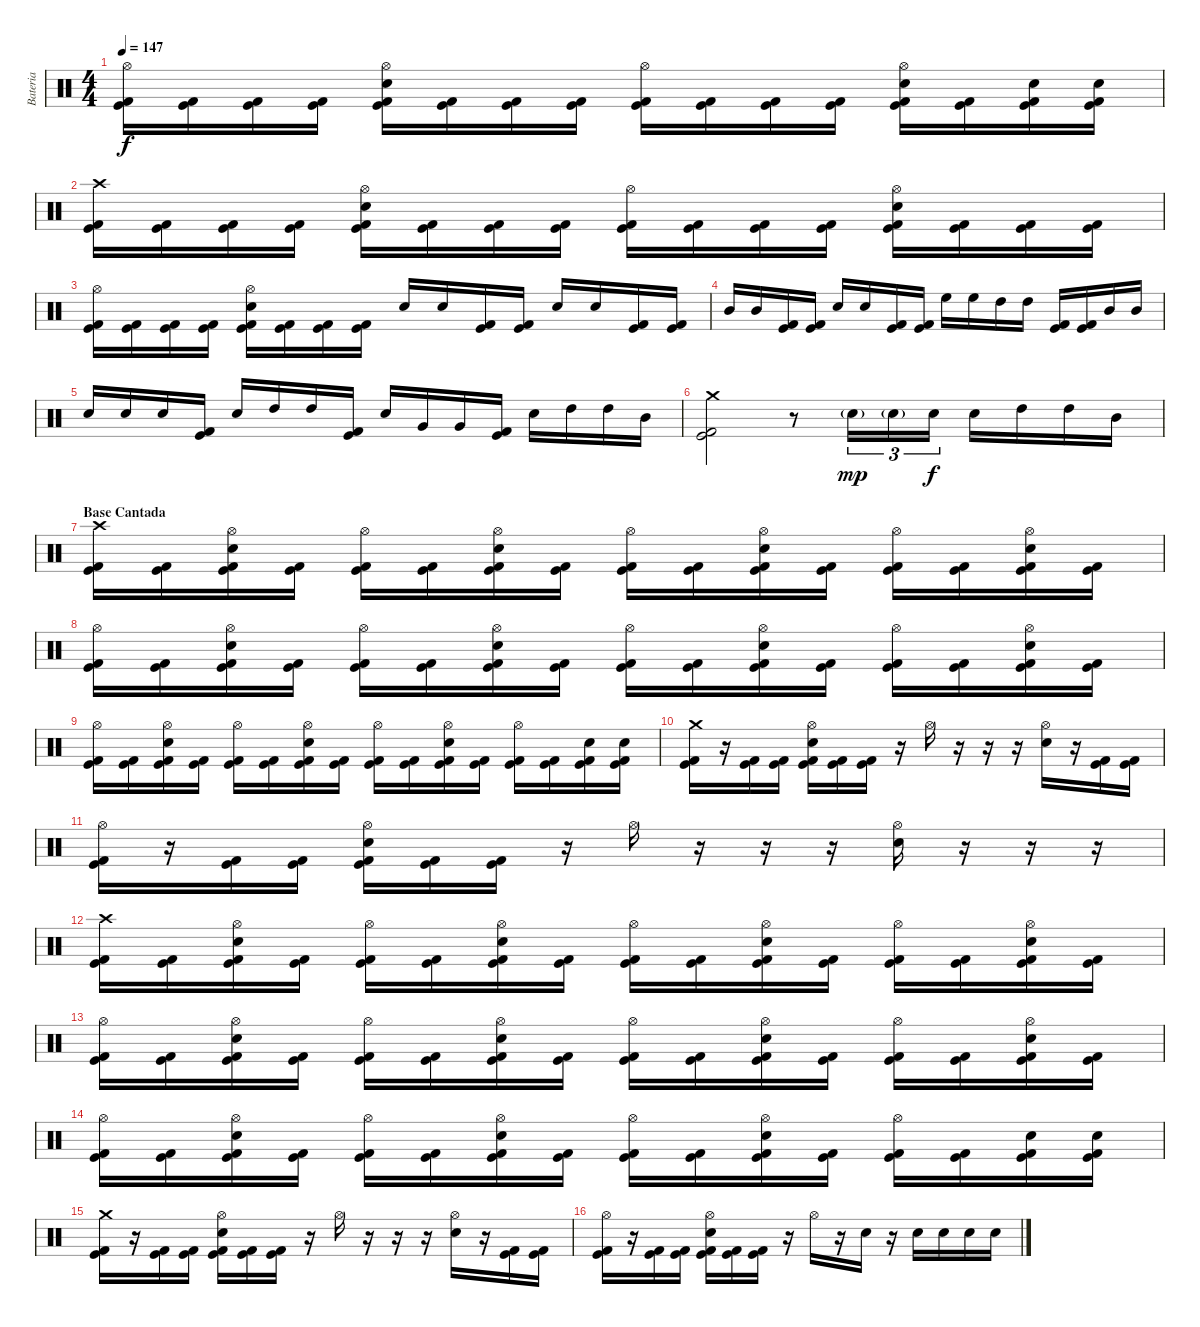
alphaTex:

\track ("Bateria" "Bateria") {instrument percussion}
\staff {score}
\articulation defaults
\ts (4 4)
\tempo 147
\clef neutral
\ks c
("Hi-Hat (open)" "Kick (hit)" "Kick (hit) 2").16{dy f} ("Kick (hit)" "Kick (hit) 2").16 ("Kick (hit)" "Kick (hit) 2").16 ("Kick (hit)" "Kick (hit) 2").16 ("Hi-Hat (open)" "Electric Snare (hit)" "Kick (hit)" "Kick (hit) 2").16 ("Kick (hit)" "Kick (hit) 2").16 ("Kick (hit)" "Kick (hit) 2").16 ("Kick (hit)" "Kick (hit) 2").16 ("Hi-Hat (open)" "Kick (hit)" "Kick (hit) 2").16 ("Kick (hit)" "Kick (hit) 2").16 ("Kick (hit)" "Kick (hit) 2").16 ("Kick (hit)" "Kick (hit) 2").16 ("Hi-Hat (open)" "Electric Snare (hit)" "Kick (hit)" "Kick (hit) 2").16 ("Kick (hit)" "Kick (hit) 2").16 ("Electric Snare (hit)" "Kick (hit)" "Kick (hit) 2").16 ("Electric Snare (hit)" "Kick (hit)" "Kick (hit) 2").16 |
("Crash high (hit)" "Kick (hit)" "Kick (hit) 2").16 ("Kick (hit)" "Kick (hit) 2").16 ("Kick (hit)" "Kick (hit) 2").16 ("Kick (hit)" "Kick (hit) 2").16 ("Hi-Hat (open)" "Electric Snare (hit)" "Kick (hit)" "Kick (hit) 2").16 ("Kick (hit)" "Kick (hit) 2").16 ("Kick (hit)" "Kick (hit) 2").16 ("Kick (hit)" "Kick (hit) 2").16 ("Hi-Hat (open)" "Kick (hit)" "Kick (hit) 2").16 ("Kick (hit)" "Kick (hit) 2").16 ("Kick (hit)" "Kick (hit) 2").16 ("Kick (hit)" "Kick (hit) 2").16 ("Hi-Hat (open)" "Electric Snare (hit)" "Kick (hit)" "Kick (hit) 2").16 ("Kick (hit)" "Kick (hit) 2").16 ("Kick (hit)" "Kick (hit) 2").16 ("Kick (hit)" "Kick (hit) 2").16 |
("Hi-Hat (open)" "Kick (hit)" "Kick (hit) 2").16 ("Kick (hit)" "Kick (hit) 2").16 ("Kick (hit)" "Kick (hit) 2").16 ("Kick (hit)" "Kick (hit) 2").16 ("Hi-Hat (open)" "Electric Snare (hit)" "Kick (hit)" "Kick (hit) 2").16 ("Kick (hit)" "Kick (hit) 2").16 ("Kick (hit)" "Kick (hit) 2").16 ("Kick (hit)" "Kick (hit) 2").16 "Electric Snare (hit)".16 "Electric Snare (hit)".16 ("Kick (hit)" "Kick (hit) 2").16 ("Kick (hit)" "Kick (hit) 2").16 "Electric Snare (hit)".16 "Electric Snare (hit)".16 ("Kick (hit)" "Kick (hit) 2").16 ("Kick (hit)" "Kick (hit) 2").16 |
"Mid Tom (hit)".16 "Mid Tom (hit)".16 ("Kick (hit)" "Kick (hit) 2").16 ("Kick (hit)" "Kick (hit) 2").16 "Electric Snare (hit)".16 "Electric Snare (hit)".16 ("Kick (hit)" "Kick (hit) 2").16 ("Kick (hit)" "Kick (hit) 2").16 "High Floor Tom (hit)".16 "High Floor Tom (hit)".16 "High Tom (hit)".16 "High Tom (hit)".16 ("Kick (hit)" "Kick (hit) 2").16 ("Kick (hit)" "Kick (hit) 2").16 "Mid Tom (hit)".16 "Mid Tom (hit)".16 |
"Electric Snare (hit)".16 "Electric Snare (hit)".16 "Electric Snare (hit)".16 ("Kick (hit)" "Kick (hit) 2").16 "Electric Snare (hit)".16 "High Tom (hit)".16 "High Tom (hit)".16 ("Kick (hit)" "Kick (hit) 2").16 "Electric Snare (hit)".16 "Very Low Tom (hit)".16 "Very Low Tom (hit)".16 ("Kick (hit)" "Kick (hit) 2").16 "Electric Snare (hit)".16 "High Tom (hit)".16 "High Tom (hit)".16 "Mid Tom (hit)".16 |
("Crash medium (hit)" "Kick (hit)" "Kick (hit) 2").2 r.8 "Electric Snare (hit)"{g}.16{tu (3 2) dy mp} "Electric Snare (hit)"{g}.16{tu (3 2)} "Electric Snare (hit)".16{tu (3 2) dy f} "Electric Snare (hit)".16 "High Tom (hit)".16 "High Tom (hit)".16 "Mid Tom (hit)".16 |
\section ("" "Base Cantada")
("Crash high (hit)" "Kick (hit)" "Kick (hit) 2").16 ("Kick (hit)" "Kick (hit) 2").16 ("Hi-Hat (open)" "Electric Snare (hit)" "Kick (hit)" "Kick (hit) 2").16 ("Kick (hit)" "Kick (hit) 2").16 ("Hi-Hat (open)" "Kick (hit)" "Kick (hit) 2").16 ("Kick (hit)" "Kick (hit) 2").16 ("Hi-Hat (open)" "Electric Snare (hit)" "Kick (hit)" "Kick (hit) 2").16 ("Kick (hit)" "Kick (hit) 2").16 ("Hi-Hat (open)" "Kick (hit)" "Kick (hit) 2").16 ("Kick (hit)" "Kick (hit) 2").16 ("Hi-Hat (open)" "Electric Snare (hit)" "Kick (hit)" "Kick (hit) 2").16 ("Kick (hit)" "Kick (hit) 2").16 ("Hi-Hat (open)" "Kick (hit)" "Kick (hit) 2").16 ("Kick (hit)" "Kick (hit) 2").16 ("Hi-Hat (open)" "Electric Snare (hit)" "Kick (hit)" "Kick (hit) 2").16 ("Kick (hit)" "Kick (hit) 2").16 |
("Hi-Hat (open)" "Kick (hit)" "Kick (hit) 2").16 ("Kick (hit)" "Kick (hit) 2").16 ("Hi-Hat (open)" "Electric Snare (hit)" "Kick (hit)" "Kick (hit) 2").16 ("Kick (hit)" "Kick (hit) 2").16 ("Hi-Hat (open)" "Kick (hit)" "Kick (hit) 2").16 ("Kick (hit)" "Kick (hit) 2").16 ("Hi-Hat (open)" "Electric Snare (hit)" "Kick (hit)" "Kick (hit) 2").16 ("Kick (hit)" "Kick (hit) 2").16 ("Hi-Hat (open)" "Kick (hit)" "Kick (hit) 2").16 ("Kick (hit)" "Kick (hit) 2").16 ("Hi-Hat (open)" "Electric Snare (hit)" "Kick (hit)" "Kick (hit) 2").16 ("Kick (hit)" "Kick (hit) 2").16 ("Hi-Hat (open)" "Kick (hit)" "Kick (hit) 2").16 ("Kick (hit)" "Kick (hit) 2").16 ("Hi-Hat (open)" "Electric Snare (hit)" "Kick (hit)" "Kick (hit) 2").16 ("Kick (hit)" "Kick (hit) 2").16 |
("Hi-Hat (open)" "Kick (hit)" "Kick (hit) 2").16 ("Kick (hit)" "Kick (hit) 2").16 ("Hi-Hat (open)" "Electric Snare (hit)" "Kick (hit)" "Kick (hit) 2").16 ("Kick (hit)" "Kick (hit) 2").16 ("Hi-Hat (open)" "Kick (hit)" "Kick (hit) 2").16 ("Kick (hit)" "Kick (hit) 2").16 ("Hi-Hat (open)" "Electric Snare (hit)" "Kick (hit)" "Kick (hit) 2").16 ("Kick (hit)" "Kick (hit) 2").16 ("Hi-Hat (open)" "Kick (hit)" "Kick (hit) 2").16 ("Kick (hit)" "Kick (hit) 2").16 ("Hi-Hat (open)" "Electric Snare (hit)" "Kick (hit)" "Kick (hit) 2").16 ("Kick (hit)" "Kick (hit) 2").16 ("Hi-Hat (open)" "Kick (hit)" "Kick (hit) 2").16 ("Kick (hit)" "Kick (hit) 2").16 ("Electric Snare (hit)" "Kick (hit)" "Kick (hit) 2").16 ("Electric Snare (hit)" "Kick (hit)" "Kick (hit) 2").16 |
("Crash medium (hit)" "Kick (hit)" "Kick (hit) 2").16 r.16 ("Kick (hit)" "Kick (hit) 2").16 ("Kick (hit)" "Kick (hit) 2").16 ("Hi-Hat (open)" "Electric Snare (hit)" "Kick (hit)" "Kick (hit) 2").16 ("Kick (hit)" "Kick (hit) 2").16 ("Kick (hit)" "Kick (hit) 2").16 r.16 "Hi-Hat (open)".16 r.16 r.16 r.16 ("Hi-Hat (open)" "Electric Snare (hit)").16 r.16 ("Kick (hit)" "Kick (hit) 2").16 ("Kick (hit)" "Kick (hit) 2").16 |
("Hi-Hat (open)" "Kick (hit)" "Kick (hit) 2").16 r.16 ("Kick (hit)" "Kick (hit) 2").16 ("Kick (hit)" "Kick (hit) 2").16 ("Hi-Hat (open)" "Electric Snare (hit)" "Kick (hit)" "Kick (hit) 2").16 ("Kick (hit)" "Kick (hit) 2").16 ("Kick (hit)" "Kick (hit) 2").16 r.16 "Hi-Hat (open)".16 r.16 r.16 r.16 ("Hi-Hat (open)" "Electric Snare (hit)").16 r.16 r.16 r.16 |
("Crash high (hit)" "Kick (hit)" "Kick (hit) 2").16 ("Kick (hit)" "Kick (hit) 2").16 ("Hi-Hat (open)" "Electric Snare (hit)" "Kick (hit)" "Kick (hit) 2").16 ("Kick (hit)" "Kick (hit) 2").16 ("Hi-Hat (open)" "Kick (hit)" "Kick (hit) 2").16 ("Kick (hit)" "Kick (hit) 2").16 ("Hi-Hat (open)" "Electric Snare (hit)" "Kick (hit)" "Kick (hit) 2").16 ("Kick (hit)" "Kick (hit) 2").16 ("Hi-Hat (open)" "Kick (hit)" "Kick (hit) 2").16 ("Kick (hit)" "Kick (hit) 2").16 ("Hi-Hat (open)" "Electric Snare (hit)" "Kick (hit)" "Kick (hit) 2").16 ("Kick (hit)" "Kick (hit) 2").16 ("Hi-Hat (open)" "Kick (hit)" "Kick (hit) 2").16 ("Kick (hit)" "Kick (hit) 2").16 ("Hi-Hat (open)" "Electric Snare (hit)" "Kick (hit)" "Kick (hit) 2").16 ("Kick (hit)" "Kick (hit) 2").16 |
("Hi-Hat (open)" "Kick (hit)" "Kick (hit) 2").16 ("Kick (hit)" "Kick (hit) 2").16 ("Hi-Hat (open)" "Electric Snare (hit)" "Kick (hit)" "Kick (hit) 2").16 ("Kick (hit)" "Kick (hit) 2").16 ("Hi-Hat (open)" "Kick (hit)" "Kick (hit) 2").16 ("Kick (hit)" "Kick (hit) 2").16 ("Hi-Hat (open)" "Electric Snare (hit)" "Kick (hit)" "Kick (hit) 2").16 ("Kick (hit)" "Kick (hit) 2").16 ("Hi-Hat (open)" "Kick (hit)" "Kick (hit) 2").16 ("Kick (hit)" "Kick (hit) 2").16 ("Hi-Hat (open)" "Electric Snare (hit)" "Kick (hit)" "Kick (hit) 2").16 ("Kick (hit)" "Kick (hit) 2").16 ("Hi-Hat (open)" "Kick (hit)" "Kick (hit) 2").16 ("Kick (hit)" "Kick (hit) 2").16 ("Hi-Hat (open)" "Electric Snare (hit)" "Kick (hit)" "Kick (hit) 2").16 ("Kick (hit)" "Kick (hit) 2").16 |
("Hi-Hat (open)" "Kick (hit)" "Kick (hit) 2").16 ("Kick (hit)" "Kick (hit) 2").16 ("Hi-Hat (open)" "Electric Snare (hit)" "Kick (hit)" "Kick (hit) 2").16 ("Kick (hit)" "Kick (hit) 2").16 ("Hi-Hat (open)" "Kick (hit)" "Kick (hit) 2").16 ("Kick (hit)" "Kick (hit) 2").16 ("Hi-Hat (open)" "Electric Snare (hit)" "Kick (hit)" "Kick (hit) 2").16 ("Kick (hit)" "Kick (hit) 2").16 ("Hi-Hat (open)" "Kick (hit)" "Kick (hit) 2").16 ("Kick (hit)" "Kick (hit) 2").16 ("Hi-Hat (open)" "Electric Snare (hit)" "Kick (hit)" "Kick (hit) 2").16 ("Kick (hit)" "Kick (hit) 2").16 ("Hi-Hat (open)" "Kick (hit)" "Kick (hit) 2").16 ("Kick (hit)" "Kick (hit) 2").16 ("Electric Snare (hit)" "Kick (hit)" "Kick (hit) 2").16 ("Electric Snare (hit)" "Kick (hit)" "Kick (hit) 2").16 |
("Crash medium (hit)" "Kick (hit)" "Kick (hit) 2").16 r.16 ("Kick (hit)" "Kick (hit) 2").16 ("Kick (hit)" "Kick (hit) 2").16 ("Hi-Hat (open)" "Electric Snare (hit)" "Kick (hit)" "Kick (hit) 2").16 ("Kick (hit)" "Kick (hit) 2").16 ("Kick (hit)" "Kick (hit) 2").16 r.16 "Hi-Hat (open)".16 r.16 r.16 r.16 ("Hi-Hat (open)" "Electric Snare (hit)").16 r.16 ("Kick (hit)" "Kick (hit) 2").16 ("Kick (hit)" "Kick (hit) 2").16 |
("Hi-Hat (open)" "Kick (hit)" "Kick (hit) 2").16 r.16 ("Kick (hit)" "Kick (hit) 2").16 ("Kick (hit)" "Kick (hit) 2").16 ("Hi-Hat (open)" "Electric Snare (hit)" "Kick (hit)" "Kick (hit) 2").16 ("Kick (hit)" "Kick (hit) 2").16 ("Kick (hit)" "Kick (hit) 2").16 r.16 "Hi-Hat (open)".16 r.16 "Electric Snare (hit)".16 r.16 "Electric Snare (hit)".16 "Electric Snare (hit)".16 "Electric Snare (hit)".16 "Electric Snare (hit)".16
